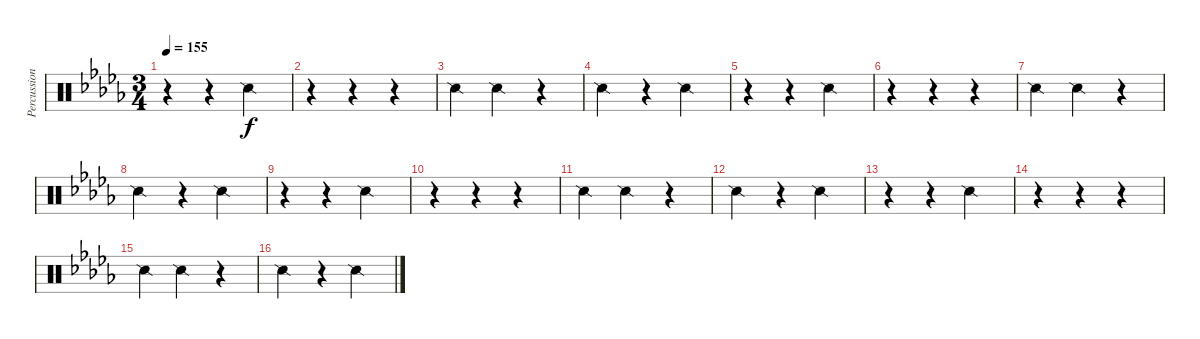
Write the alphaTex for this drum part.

\track ("Percussion" "Percussion") {instrument percussion}
\staff {score}
\articulation defaults
\ts (3 4)
\tempo 155
\clef neutral
\ks db
r.4{dy f} r.4 "Snare (side stick) 2".4 |
r.4 r.4 r.4 |
"Snare (side stick) 2".4 "Snare (side stick) 2".4 r.4 |
"Snare (side stick) 2".4 r.4 "Snare (side stick) 2".4 |
r.4 r.4 "Snare (side stick) 2".4 |
r.4 r.4 r.4 |
"Snare (side stick) 2".4 "Snare (side stick) 2".4 r.4 |
"Snare (side stick) 2".4 r.4 "Snare (side stick) 2".4 |
r.4 r.4 "Snare (side stick) 2".4 |
r.4 r.4 r.4 |
"Snare (side stick) 2".4 "Snare (side stick) 2".4 r.4 |
"Snare (side stick) 2".4 r.4 "Snare (side stick) 2".4 |
r.4 r.4 "Snare (side stick) 2".4 |
r.4 r.4 r.4 |
"Snare (side stick) 2".4 "Snare (side stick) 2".4 r.4 |
"Snare (side stick) 2".4 r.4 "Snare (side stick) 2".4
